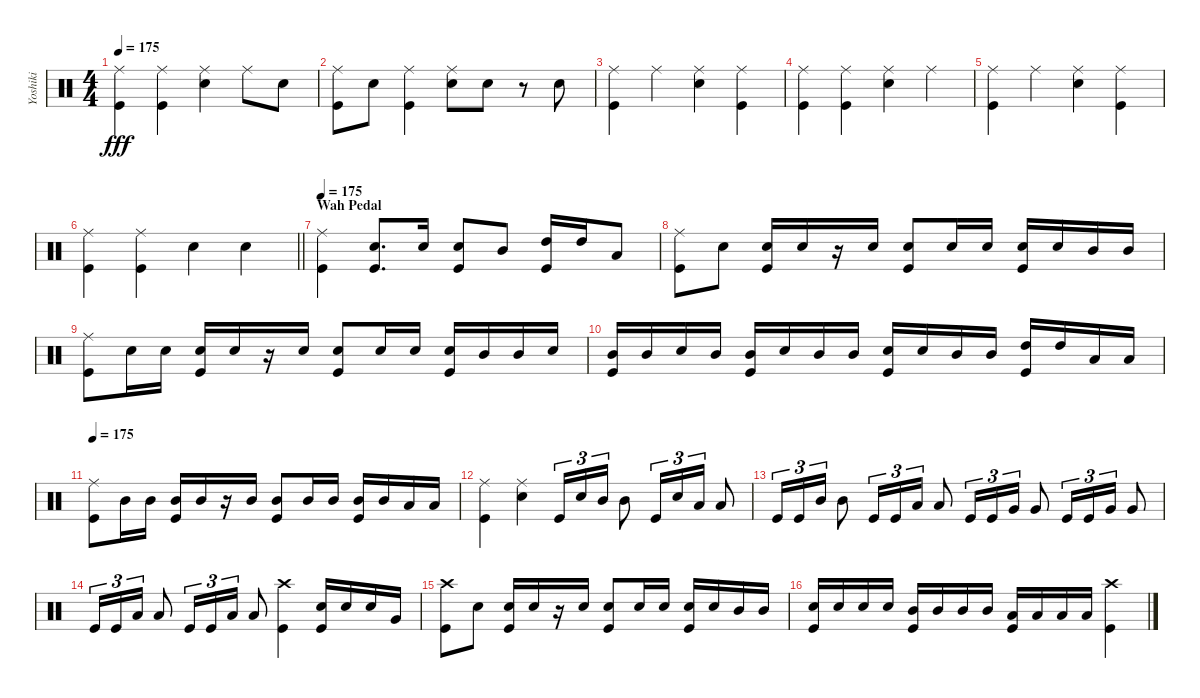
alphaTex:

\track ("Yoshiki" "Yoshiki") {instrument percussion}
\staff {score}
\articulation defaults
\ts (4 4)
\tempo 175
\clef neutral
\ks c
("Ride (middle)" "Kick (hit)").4{dy fff} ("Ride (middle)" "Kick (hit)").4 ("Ride (middle)" "Snare (hit) 2").4 "Ride (middle)".8 "Snare (hit) 2".8 |
("Ride (middle)" "Kick (hit)").8 "Snare (hit) 2".8 ("Ride (middle)" "Kick (hit)").4 ("Ride (middle)" "Snare (hit) 2").8 "Snare (hit) 2".8 r.8 "Snare (hit) 2".8 |
("Ride (middle)" "Kick (hit)").4 "Ride (middle)".4 ("Ride (middle)" "Snare (hit) 2").4 ("Ride (middle)" "Kick (hit)").4 |
("Ride (middle)" "Kick (hit)").4 ("Ride (middle)" "Kick (hit)").4 ("Ride (middle)" "Snare (hit) 2").4 "Ride (middle)".4 |
("Ride (middle)" "Kick (hit)").4 "Ride (middle)".4 ("Ride (middle)" "Snare (hit) 2").4 ("Ride (middle)" "Kick (hit)").4 |
\barLineRight lightlight
("Ride (middle)" "Kick (hit)").4 ("Ride (middle)" "Kick (hit)").4 "Snare (hit) 2".4 "Snare (hit) 2".4 |
\section ("" "Wah Pedal")
\tempo 175
("Ride (middle)" "Kick (hit)").4 ("Snare (hit) 2" "Kick (hit)").8{d} "Snare (hit) 2".16 ("Snare (hit) 2" "Kick (hit)").8 "Mid Tom (hit)".8 ("High Tom (hit)" "Kick (hit)").16 "High Tom (hit)".16 "Low Tom (hit)".8 |
("Ride (middle)" "Kick (hit)").8 "Snare (hit) 2".8 ("Snare (hit) 2" "Kick (hit)").16 "Snare (hit) 2".16 r.16 "Snare (hit) 2".16 ("Snare (hit) 2" "Kick (hit)").8 "Snare (hit) 2".16 "Snare (hit) 2".16 ("Snare (hit) 2" "Kick (hit)").16 "Snare (hit) 2".16 "Mid Tom (hit)".16 "Mid Tom (hit)".16 |
("Ride (middle)" "Kick (hit)").8 "Snare (hit) 2".16 "Snare (hit) 2".16 ("Snare (hit) 2" "Kick (hit)").16 "Snare (hit) 2".16 r.16 "Snare (hit) 2".16 ("Snare (hit) 2" "Kick (hit)").8 "Snare (hit) 2".16 "Snare (hit) 2".16 ("Snare (hit) 2" "Kick (hit)").16 "Mid Tom (hit)".16 "Mid Tom (hit)".16 "Snare (hit) 2".16 |
("Mid Tom (hit)" "Kick (hit)").16 "Mid Tom (hit)".16 "Snare (hit) 2".16 "Mid Tom (hit)".16 ("Mid Tom (hit)" "Kick (hit)").16 "Snare (hit) 2".16 "Mid Tom (hit)".16 "Mid Tom (hit)".16 ("Snare (hit) 2" "Kick (hit)").16 "Snare (hit) 2".16 "Mid Tom (hit)".16 "Mid Tom (hit)".16 ("High Tom (hit)" "Kick (hit)").16 "High Tom (hit)".16 "Low Tom (hit)".16 "Low Tom (hit)".16 |
\tempo 175
("Ride (middle)" "Kick (hit)").8 "Mid Tom (hit)".16 "Mid Tom (hit)".16 ("Mid Tom (hit)" "Kick (hit)").16 "Mid Tom (hit)".16 r.16 "Mid Tom (hit)".16 ("Mid Tom (hit)" "Kick (hit)").8 "Mid Tom (hit)".16 "Mid Tom (hit)".16 ("Mid Tom (hit)" "Kick (hit)").16 "Mid Tom (hit)".16 "Low Tom (hit)".16 "Low Tom (hit)".16 |
("Ride (middle)" "Kick (hit)").4 ("Ride (middle)" "Snare (hit) 2").4 "Kick (hit)".16{tu (3 2)} "Snare (hit) 2".16{tu (3 2)} "Mid Tom (hit)".16{tu (3 2)} "Mid Tom (hit)".8 "Kick (hit)".16{tu (3 2)} "Snare (hit) 2".16{tu (3 2)} "Low Tom (hit)".16{tu (3 2)} "Low Tom (hit)".8 |
"Kick (hit)".16{tu (3 2)} "Kick (hit)".16{tu (3 2)} "Mid Tom (hit)".16{tu (3 2)} "Mid Tom (hit)".8 "Kick (hit)".16{tu (3 2)} "Kick (hit)".16{tu (3 2)} "Low Tom (hit)".16{tu (3 2)} "Low Tom (hit)".8 "Kick (hit)".16{tu (3 2)} "Kick (hit)".16{tu (3 2)} "Very Low Tom (hit)".16{tu (3 2)} "Very Low Tom (hit)".8 "Kick (hit)".16{tu (3 2)} "Kick (hit)".16{tu (3 2)} "Very Low Tom (hit)".16{tu (3 2)} "Very Low Tom (hit)".8 |
"Kick (hit)".16{tu (3 2)} "Kick (hit)".16{tu (3 2)} "Low Floor Tom (hit)".16{tu (3 2)} "Low Floor Tom (hit)".8 "Kick (hit)".16{tu (3 2)} "Kick (hit)".16{tu (3 2)} "Low Floor Tom (hit)".16{tu (3 2)} "Low Floor Tom (hit)".8 ("Crash high (hit)" "Kick (hit)").4 ("Snare (hit) 2" "Kick (hit)").16 "Snare (hit) 2".16 "Snare (hit) 2".16 "Very Low Tom (hit)".16 |
("Crash high (hit)" "Kick (hit)").8 "Snare (hit) 2".8 ("Snare (hit) 2" "Kick (hit)").16 "Snare (hit) 2".16 r.16 "Snare (hit) 2".16 ("Snare (hit) 2" "Kick (hit)").8 "Snare (hit) 2".16 "Snare (hit) 2".16 ("Snare (hit) 2" "Kick (hit)").16 "Snare (hit) 2".16 "Mid Tom (hit)".16 "Mid Tom (hit)".16 |
("Snare (hit) 2" "Kick (hit)").16 "Snare (hit) 2".16 "Snare (hit) 2".16 "Snare (hit) 2".16 ("Mid Tom (hit)" "Kick (hit)").16 "Mid Tom (hit)".16 "Mid Tom (hit)".16 "Mid Tom (hit)".16 ("Low Tom (hit)" "Kick (hit)").16 "Low Tom (hit)".16 "Low Tom (hit)".16 "Low Tom (hit)".16 ("Crash high (hit)" "Kick (hit)").4
